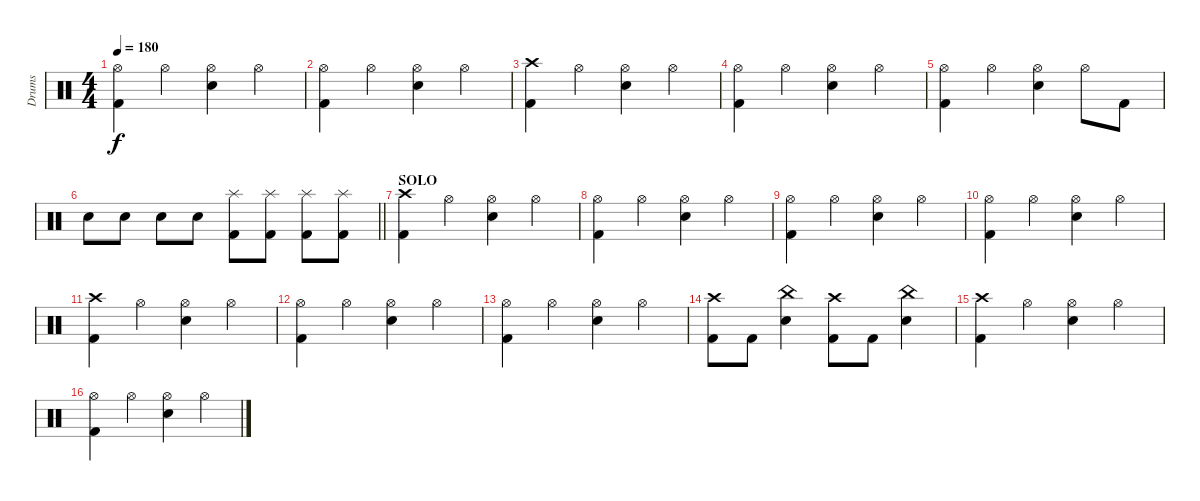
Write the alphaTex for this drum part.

\track ("Drums" "Drums") {instrument percussion}
\staff {score}
\articulation defaults
\ts (4 4)
\tempo 180
\clef neutral
\ks c
("Hi-Hat (open)" "Kick (hit) 2").4{dy f} "Hi-Hat (open)".4 ("Hi-Hat (open)" "Electric Snare (hit)").4 "Hi-Hat (open)".4 |
("Hi-Hat (open)" "Kick (hit) 2").4 "Hi-Hat (open)".4 ("Hi-Hat (open)" "Electric Snare (hit)").4 "Hi-Hat (open)".4 |
("Crash high (hit)" "Kick (hit) 2").4 "Hi-Hat (open)".4 ("Hi-Hat (open)" "Electric Snare (hit)").4 "Hi-Hat (open)".4 |
("Hi-Hat (open)" "Kick (hit) 2").4 "Hi-Hat (open)".4 ("Hi-Hat (open)" "Electric Snare (hit)").4 "Hi-Hat (open)".4 |
("Hi-Hat (open)" "Kick (hit) 2").4 "Hi-Hat (open)".4 ("Hi-Hat (open)" "Electric Snare (hit)").4 "Hi-Hat (open)".8 "Kick (hit) 2".8 |
\barLineRight lightlight "Electric Snare (hit)".8 "Electric Snare (hit)".8 "Electric Snare (hit)".8 "Electric Snare (hit)".8
("Kick (hit) 2" "Splash (hit)").8 ("Kick (hit) 2" "Splash (hit)").8 ("Kick (hit) 2" "Splash (hit)").8 ("Kick (hit) 2" "Splash (hit)").8 |
\section ("" "SOLO")
("Crash high (hit)" "Kick (hit) 2").4 "Hi-Hat (open)".4 ("Hi-Hat (open)" "Electric Snare (hit)").4 "Hi-Hat (open)".4 |
("Hi-Hat (open)" "Kick (hit) 2").4 "Hi-Hat (open)".4 ("Hi-Hat (open)" "Electric Snare (hit)").4 "Hi-Hat (open)".4 |
("Hi-Hat (open)" "Kick (hit) 2").4 "Hi-Hat (open)".4 ("Hi-Hat (open)" "Electric Snare (hit)").4 "Hi-Hat (open)".4 |
("Hi-Hat (open)" "Kick (hit) 2").4 "Hi-Hat (open)".4 ("Hi-Hat (open)" "Electric Snare (hit)").4 "Hi-Hat (open)".4 |
("Crash high (hit)" "Kick (hit) 2").4 "Hi-Hat (open)".4 ("Hi-Hat (open)" "Electric Snare (hit)").4 "Hi-Hat (open)".4 |
("Hi-Hat (open)" "Kick (hit) 2").4 "Hi-Hat (open)".4 ("Hi-Hat (open)" "Electric Snare (hit)").4 "Hi-Hat (open)".4 |
("Hi-Hat (open)" "Kick (hit) 2").4 "Hi-Hat (open)".4 ("Hi-Hat (open)" "Electric Snare (hit)").4 "Hi-Hat (open)".4 |
("Crash high (hit)" "Kick (hit) 2").8 "Kick (hit) 2".8 ("China (hit)" "Electric Snare (hit)").4 ("Crash high (hit)" "Kick (hit) 2").8 "Kick (hit) 2".8 ("China (hit)" "Electric Snare (hit)").4 |
("Crash high (hit)" "Kick (hit) 2").4 "Hi-Hat (open)".4 ("Hi-Hat (open)" "Electric Snare (hit)").4 "Hi-Hat (open)".4 |
("Hi-Hat (open)" "Kick (hit) 2").4 "Hi-Hat (open)".4 ("Hi-Hat (open)" "Electric Snare (hit)").4 "Hi-Hat (open)".4
